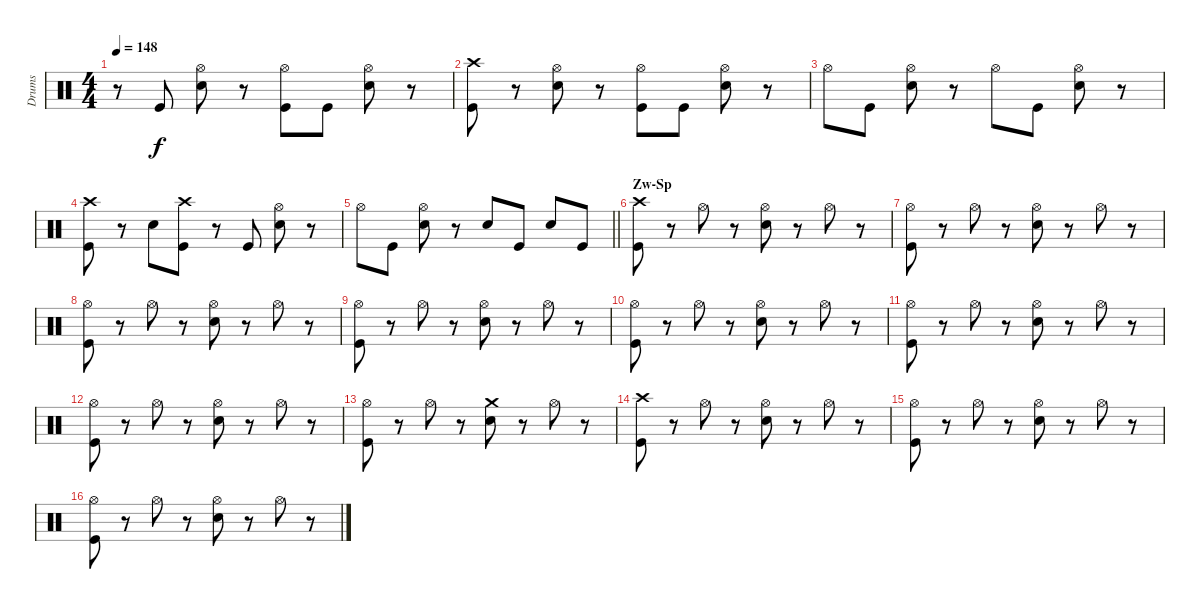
\track ("Drums" "Drums") {instrument percussion}
\staff {score}
\articulation defaults
\ts (4 4)
\tempo 148
\clef neutral
\ks c
r.8{dy f} "Kick (hit)".8 ("Snare (hit) 2" "Hi-Hat (open)").8 r.8 ("Kick (hit)" "Hi-Hat (open)").8 "Kick (hit)".8 ("Snare (hit) 2" "Hi-Hat (open)").8 r.8 |
("Kick (hit)" "Crash high (hit)").8 r.8 ("Snare (hit) 2" "Hi-Hat (open)").8 r.8 ("Kick (hit)" "Hi-Hat (open)").8 "Kick (hit)".8 ("Snare (hit) 2" "Hi-Hat (open)").8 r.8 |
"Hi-Hat (open)".8 "Kick (hit)".8 ("Hi-Hat (open)" "Snare (hit) 2").8 r.8 "Hi-Hat (open)".8 "Kick (hit)".8 ("Hi-Hat (open)" "Snare (hit) 2").8 r.8 |
("Kick (hit)" "Crash high (hit)").8 r.8 "Snare (hit) 2".8 ("Kick (hit)" "Crash high (hit)").8 r.8 "Kick (hit)".8 ("Hi-Hat (open)" "Snare (hit) 2").8 r.8 |
\barLineRight lightlight "Hi-Hat (open)".8 "Kick (hit)".8
("Hi-Hat (open)" "Snare (hit) 2").8 r.8 "Snare (hit) 2".8 "Kick (hit)".8 "Snare (hit) 2".8 "Kick (hit)".8 |
\section ("" "Zw-Sp")
("Crash high (hit)" "Kick (hit)").8 r.8 "Hi-Hat (open)".8 r.8 ("Hi-Hat (open)" "Snare (hit) 2").8 r.8 "Hi-Hat (open)".8 r.8 |
("Hi-Hat (open)" "Kick (hit)").8 r.8 "Hi-Hat (open)".8 r.8 ("Hi-Hat (open)" "Snare (hit) 2").8 r.8 "Hi-Hat (open)".8 r.8 |
("Hi-Hat (open)" "Kick (hit)").8 r.8 "Hi-Hat (open)".8 r.8 ("Hi-Hat (open)" "Snare (hit) 2").8 r.8 "Hi-Hat (open)".8 r.8 |
("Hi-Hat (open)" "Kick (hit)").8 r.8 "Hi-Hat (open)".8 r.8 ("Hi-Hat (open)" "Snare (hit) 2").8 r.8 "Hi-Hat (open)".8 r.8 |
("Hi-Hat (open)" "Kick (hit)").8 r.8 "Hi-Hat (open)".8 r.8 ("Hi-Hat (open)" "Snare (hit) 2").8 r.8 "Hi-Hat (open)".8 r.8 |
("Hi-Hat (open)" "Kick (hit)").8 r.8 "Hi-Hat (open)".8 r.8 ("Hi-Hat (open)" "Snare (hit) 2").8 r.8 "Hi-Hat (open)".8 r.8 |
("Hi-Hat (open)" "Kick (hit)").8 r.8 "Hi-Hat (open)".8 r.8 ("Hi-Hat (open)" "Snare (hit) 2").8 r.8 "Hi-Hat (open)".8 r.8 |
("Hi-Hat (open)" "Kick (hit)").8 r.8 "Hi-Hat (open)".8 r.8 ("Crash medium (hit)" "Snare (hit) 2").8 r.8 "Hi-Hat (open)".8 r.8 |
("Crash high (hit)" "Kick (hit)").8 r.8 "Hi-Hat (open)".8 r.8 ("Hi-Hat (open)" "Snare (hit) 2").8 r.8 "Hi-Hat (open)".8 r.8 |
("Hi-Hat (open)" "Kick (hit)").8 r.8 "Hi-Hat (open)".8 r.8 ("Hi-Hat (open)" "Snare (hit) 2").8 r.8 "Hi-Hat (open)".8 r.8 |
("Hi-Hat (open)" "Kick (hit)").8 r.8 "Hi-Hat (open)".8 r.8 ("Hi-Hat (open)" "Snare (hit) 2").8 r.8 "Hi-Hat (open)".8 r.8
